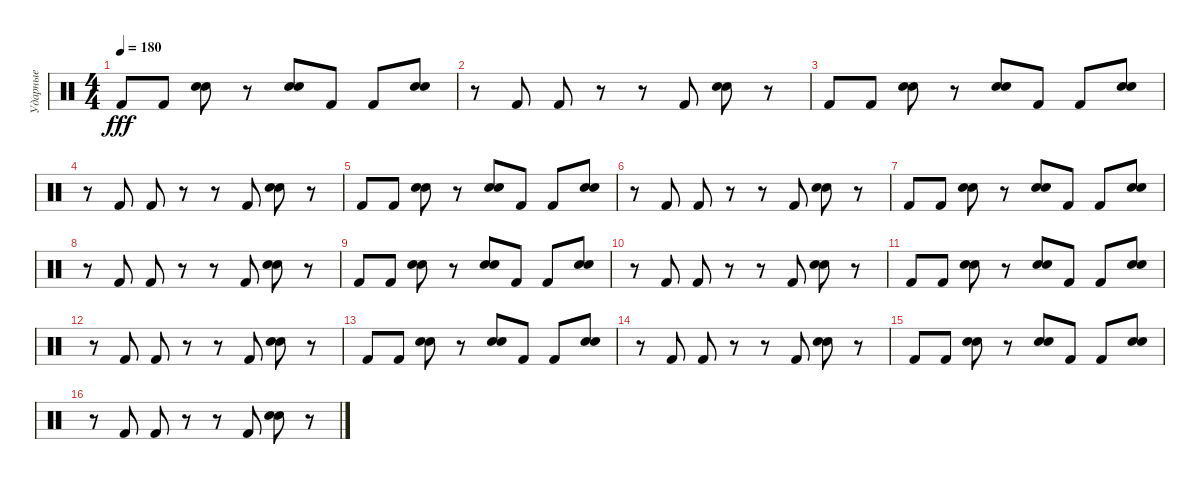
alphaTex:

\track ("Ударные" "Ударные") {instrument percussion}
\staff {score}
\articulation defaults
\ts (4 4)
\tempo 180
\clef neutral
\ks c "Kick (hit) 2".8{dy fff} "Kick (hit) 2".8
("Electric Snare (hit)" "Snare (hit) 2").8 r.8 ("Electric Snare (hit)" "Snare (hit) 2").8 "Kick (hit) 2".8 "Kick (hit) 2".8 ("Electric Snare (hit)" "Snare (hit) 2").8 |
r.8 "Kick (hit) 2".8 "Kick (hit) 2".8 r.8 r.8 "Kick (hit) 2".8 ("Electric Snare (hit)" "Snare (hit) 2").8 r.8 |
"Kick (hit) 2".8 "Kick (hit) 2".8 ("Electric Snare (hit)" "Snare (hit) 2").8 r.8 ("Electric Snare (hit)" "Snare (hit) 2").8 "Kick (hit) 2".8 "Kick (hit) 2".8 ("Electric Snare (hit)" "Snare (hit) 2").8 |
r.8 "Kick (hit) 2".8 "Kick (hit) 2".8 r.8 r.8 "Kick (hit) 2".8 ("Electric Snare (hit)" "Snare (hit) 2").8 r.8 |
"Kick (hit) 2".8 "Kick (hit) 2".8 ("Electric Snare (hit)" "Snare (hit) 2").8 r.8 ("Electric Snare (hit)" "Snare (hit) 2").8 "Kick (hit) 2".8 "Kick (hit) 2".8 ("Electric Snare (hit)" "Snare (hit) 2").8 |
r.8 "Kick (hit) 2".8 "Kick (hit) 2".8 r.8 r.8 "Kick (hit) 2".8 ("Electric Snare (hit)" "Snare (hit) 2").8 r.8 |
"Kick (hit) 2".8 "Kick (hit) 2".8 ("Electric Snare (hit)" "Snare (hit) 2").8 r.8 ("Electric Snare (hit)" "Snare (hit) 2").8 "Kick (hit) 2".8 "Kick (hit) 2".8 ("Electric Snare (hit)" "Snare (hit) 2").8 |
r.8 "Kick (hit) 2".8 "Kick (hit) 2".8 r.8 r.8 "Kick (hit) 2".8 ("Electric Snare (hit)" "Snare (hit) 2").8 r.8 |
"Kick (hit) 2".8 "Kick (hit) 2".8 ("Electric Snare (hit)" "Snare (hit) 2").8 r.8 ("Electric Snare (hit)" "Snare (hit) 2").8 "Kick (hit) 2".8 "Kick (hit) 2".8 ("Electric Snare (hit)" "Snare (hit) 2").8 |
r.8 "Kick (hit) 2".8 "Kick (hit) 2".8 r.8 r.8 "Kick (hit) 2".8 ("Electric Snare (hit)" "Snare (hit) 2").8 r.8 |
"Kick (hit) 2".8 "Kick (hit) 2".8 ("Electric Snare (hit)" "Snare (hit) 2").8 r.8 ("Electric Snare (hit)" "Snare (hit) 2").8 "Kick (hit) 2".8 "Kick (hit) 2".8 ("Electric Snare (hit)" "Snare (hit) 2").8 |
r.8 "Kick (hit) 2".8 "Kick (hit) 2".8 r.8 r.8 "Kick (hit) 2".8 ("Electric Snare (hit)" "Snare (hit) 2").8 r.8 |
"Kick (hit) 2".8 "Kick (hit) 2".8 ("Electric Snare (hit)" "Snare (hit) 2").8 r.8 ("Electric Snare (hit)" "Snare (hit) 2").8 "Kick (hit) 2".8 "Kick (hit) 2".8 ("Electric Snare (hit)" "Snare (hit) 2").8 |
r.8 "Kick (hit) 2".8 "Kick (hit) 2".8 r.8 r.8 "Kick (hit) 2".8 ("Electric Snare (hit)" "Snare (hit) 2").8 r.8 |
"Kick (hit) 2".8 "Kick (hit) 2".8 ("Electric Snare (hit)" "Snare (hit) 2").8 r.8 ("Electric Snare (hit)" "Snare (hit) 2").8 "Kick (hit) 2".8 "Kick (hit) 2".8 ("Electric Snare (hit)" "Snare (hit) 2").8 |
r.8 "Kick (hit) 2".8 "Kick (hit) 2".8 r.8 r.8 "Kick (hit) 2".8 ("Electric Snare (hit)" "Snare (hit) 2").8 r.8
